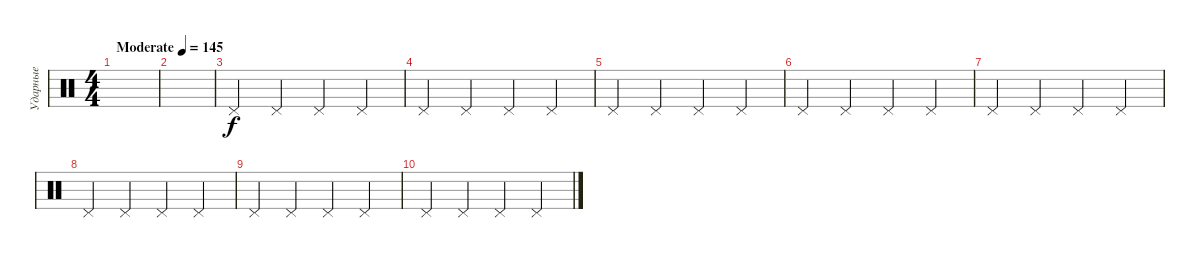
\track ("Ударные" "Ударные") {instrument percussion}
\staff {score}
\articulation defaults
\ts (4 4)
\tempo (145 "Moderate")
\clef neutral
\ks c
|
|
"Pedal Hi-Hat (hit)".4 "Pedal Hi-Hat (hit)".4 "Pedal Hi-Hat (hit)".4 "Pedal Hi-Hat (hit)".4 |
"Pedal Hi-Hat (hit)".4 "Pedal Hi-Hat (hit)".4 "Pedal Hi-Hat (hit)".4 "Pedal Hi-Hat (hit)".4 |
"Pedal Hi-Hat (hit)".4 "Pedal Hi-Hat (hit)".4 "Pedal Hi-Hat (hit)".4 "Pedal Hi-Hat (hit)".4 |
"Pedal Hi-Hat (hit)".4 "Pedal Hi-Hat (hit)".4 "Pedal Hi-Hat (hit)".4 "Pedal Hi-Hat (hit)".4 |
"Pedal Hi-Hat (hit)".4 "Pedal Hi-Hat (hit)".4 "Pedal Hi-Hat (hit)".4 "Pedal Hi-Hat (hit)".4 |
"Pedal Hi-Hat (hit)".4 "Pedal Hi-Hat (hit)".4 "Pedal Hi-Hat (hit)".4 "Pedal Hi-Hat (hit)".4 |
"Pedal Hi-Hat (hit)".4 "Pedal Hi-Hat (hit)".4 "Pedal Hi-Hat (hit)".4 "Pedal Hi-Hat (hit)".4 |
"Pedal Hi-Hat (hit)".4 "Pedal Hi-Hat (hit)".4 "Pedal Hi-Hat (hit)".4 "Pedal Hi-Hat (hit)".4
